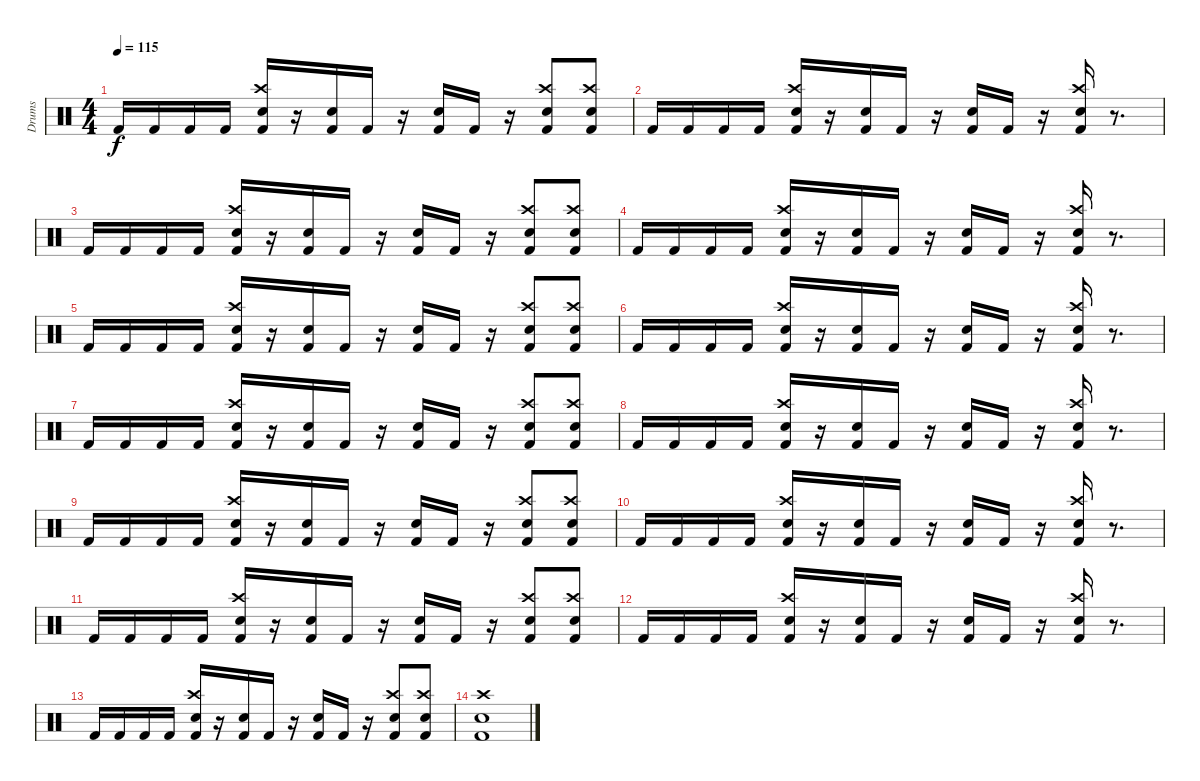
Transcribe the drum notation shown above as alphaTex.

\track ("Drums" "Drums") {instrument percussion}
\staff {score}
\articulation defaults
\ts (4 4)
\tempo 115
\clef neutral
\ks c "Kick (hit) 2".16{dy f} "Kick (hit) 2".16 "Kick (hit) 2".16 "Kick (hit) 2".16
("Crash high (hit)" "Snare (hit) 2" "Kick (hit) 2").16 r.16 ("Snare (hit) 2" "Kick (hit) 2").16 "Kick (hit) 2".16 r.16 ("Snare (hit) 2" "Kick (hit) 2").16 "Kick (hit) 2".16 r.16 ("Crash high (hit)" "Snare (hit) 2" "Kick (hit) 2").8 ("Crash high (hit)" "Snare (hit) 2" "Kick (hit) 2").8 |
"Kick (hit) 2".16 "Kick (hit) 2".16 "Kick (hit) 2".16 "Kick (hit) 2".16 ("Crash high (hit)" "Snare (hit) 2" "Kick (hit) 2").16 r.16 ("Snare (hit) 2" "Kick (hit) 2").16 "Kick (hit) 2".16 r.16 ("Snare (hit) 2" "Kick (hit) 2").16 "Kick (hit) 2".16 r.16 ("Crash high (hit)" "Snare (hit) 2" "Kick (hit) 2").16 r.8{d} |
"Kick (hit) 2".16 "Kick (hit) 2".16 "Kick (hit) 2".16 "Kick (hit) 2".16 ("Crash high (hit)" "Snare (hit) 2" "Kick (hit) 2").16 r.16 ("Snare (hit) 2" "Kick (hit) 2").16 "Kick (hit) 2".16 r.16 ("Snare (hit) 2" "Kick (hit) 2").16 "Kick (hit) 2".16 r.16 ("Crash high (hit)" "Snare (hit) 2" "Kick (hit) 2").8 ("Crash high (hit)" "Snare (hit) 2" "Kick (hit) 2").8 |
"Kick (hit) 2".16 "Kick (hit) 2".16 "Kick (hit) 2".16 "Kick (hit) 2".16 ("Crash high (hit)" "Snare (hit) 2" "Kick (hit) 2").16 r.16 ("Snare (hit) 2" "Kick (hit) 2").16 "Kick (hit) 2".16 r.16 ("Snare (hit) 2" "Kick (hit) 2").16 "Kick (hit) 2".16 r.16 ("Crash high (hit)" "Snare (hit) 2" "Kick (hit) 2").16 r.8{d} |
"Kick (hit) 2".16 "Kick (hit) 2".16 "Kick (hit) 2".16 "Kick (hit) 2".16 ("Crash high (hit)" "Snare (hit) 2" "Kick (hit) 2").16 r.16 ("Snare (hit) 2" "Kick (hit) 2").16 "Kick (hit) 2".16 r.16 ("Snare (hit) 2" "Kick (hit) 2").16 "Kick (hit) 2".16 r.16 ("Crash high (hit)" "Snare (hit) 2" "Kick (hit) 2").8 ("Crash high (hit)" "Snare (hit) 2" "Kick (hit) 2").8 |
"Kick (hit) 2".16 "Kick (hit) 2".16 "Kick (hit) 2".16 "Kick (hit) 2".16 ("Crash high (hit)" "Snare (hit) 2" "Kick (hit) 2").16 r.16 ("Snare (hit) 2" "Kick (hit) 2").16 "Kick (hit) 2".16 r.16 ("Snare (hit) 2" "Kick (hit) 2").16 "Kick (hit) 2".16 r.16 ("Crash high (hit)" "Snare (hit) 2" "Kick (hit) 2").16 r.8{d} |
"Kick (hit) 2".16 "Kick (hit) 2".16 "Kick (hit) 2".16 "Kick (hit) 2".16 ("Crash high (hit)" "Snare (hit) 2" "Kick (hit) 2").16 r.16 ("Snare (hit) 2" "Kick (hit) 2").16 "Kick (hit) 2".16 r.16 ("Snare (hit) 2" "Kick (hit) 2").16 "Kick (hit) 2".16 r.16 ("Crash high (hit)" "Snare (hit) 2" "Kick (hit) 2").8 ("Crash high (hit)" "Snare (hit) 2" "Kick (hit) 2").8 |
"Kick (hit) 2".16 "Kick (hit) 2".16 "Kick (hit) 2".16 "Kick (hit) 2".16 ("Crash high (hit)" "Snare (hit) 2" "Kick (hit) 2").16 r.16 ("Snare (hit) 2" "Kick (hit) 2").16 "Kick (hit) 2".16 r.16 ("Snare (hit) 2" "Kick (hit) 2").16 "Kick (hit) 2".16 r.16 ("Crash high (hit)" "Snare (hit) 2" "Kick (hit) 2").16 r.8{d} |
"Kick (hit) 2".16 "Kick (hit) 2".16 "Kick (hit) 2".16 "Kick (hit) 2".16 ("Crash high (hit)" "Snare (hit) 2" "Kick (hit) 2").16 r.16 ("Snare (hit) 2" "Kick (hit) 2").16 "Kick (hit) 2".16 r.16 ("Snare (hit) 2" "Kick (hit) 2").16 "Kick (hit) 2".16 r.16 ("Crash high (hit)" "Snare (hit) 2" "Kick (hit) 2").8 ("Crash high (hit)" "Snare (hit) 2" "Kick (hit) 2").8 |
"Kick (hit) 2".16 "Kick (hit) 2".16 "Kick (hit) 2".16 "Kick (hit) 2".16 ("Crash high (hit)" "Snare (hit) 2" "Kick (hit) 2").16 r.16 ("Snare (hit) 2" "Kick (hit) 2").16 "Kick (hit) 2".16 r.16 ("Snare (hit) 2" "Kick (hit) 2").16 "Kick (hit) 2".16 r.16 ("Crash high (hit)" "Snare (hit) 2" "Kick (hit) 2").16 r.8{d} |
"Kick (hit) 2".16 "Kick (hit) 2".16 "Kick (hit) 2".16 "Kick (hit) 2".16 ("Crash high (hit)" "Snare (hit) 2" "Kick (hit) 2").16 r.16 ("Snare (hit) 2" "Kick (hit) 2").16 "Kick (hit) 2".16 r.16 ("Snare (hit) 2" "Kick (hit) 2").16 "Kick (hit) 2".16 r.16 ("Crash high (hit)" "Snare (hit) 2" "Kick (hit) 2").8 ("Crash high (hit)" "Snare (hit) 2" "Kick (hit) 2").8 |
"Kick (hit) 2".16 "Kick (hit) 2".16 "Kick (hit) 2".16 "Kick (hit) 2".16 ("Crash high (hit)" "Snare (hit) 2" "Kick (hit) 2").16 r.16 ("Snare (hit) 2" "Kick (hit) 2").16 "Kick (hit) 2".16 r.16 ("Snare (hit) 2" "Kick (hit) 2").16 "Kick (hit) 2".16 r.16 ("Crash high (hit)" "Snare (hit) 2" "Kick (hit) 2").16 r.8{d} |
"Kick (hit) 2".16 "Kick (hit) 2".16 "Kick (hit) 2".16 "Kick (hit) 2".16 ("Crash high (hit)" "Snare (hit) 2" "Kick (hit) 2").16 r.16 ("Snare (hit) 2" "Kick (hit) 2").16 "Kick (hit) 2".16 r.16 ("Snare (hit) 2" "Kick (hit) 2").16 "Kick (hit) 2".16 r.16 ("Crash high (hit)" "Snare (hit) 2" "Kick (hit) 2").8 ("Crash high (hit)" "Snare (hit) 2" "Kick (hit) 2").8 |
("Crash high (hit)" "Snare (hit) 2" "Kick (hit) 2").1
